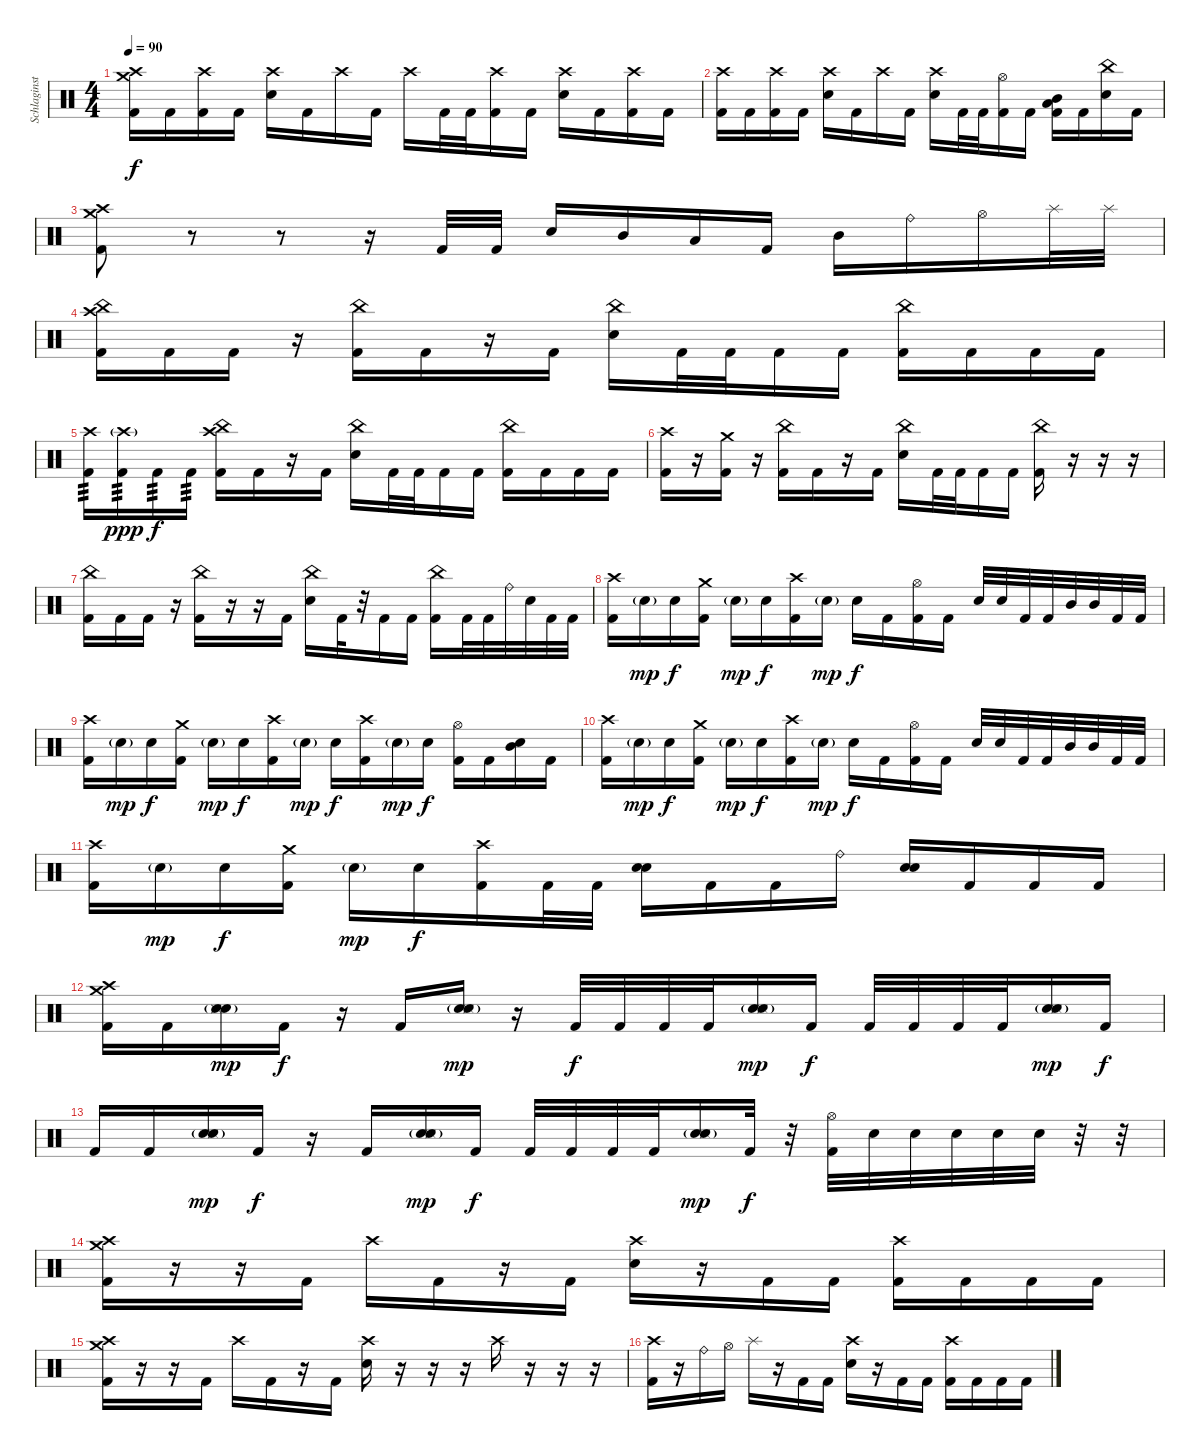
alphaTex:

\track ("Schlaginstrumente - Auswahl" "Schlaginst") {instrument percussion}
\staff {score}
\articulation defaults
\ts (4 4)
\tempo 90
\clef neutral
\ks c
("Crash high (hit)" "Crash medium (hit)" "Kick (hit) 2").16{dy f} "Kick (hit) 2".16 ("Crash high (hit)" "Kick (hit) 2").16 "Kick (hit) 2".16 ("Crash high (hit)" "Electric Snare (hit)").16 "Kick (hit) 2".16 "Crash high (hit)".16 "Kick (hit) 2".16 "Crash high (hit)".16 "Kick (hit) 2".32 "Kick (hit) 2".32 ("Crash high (hit)" "Kick (hit) 2").16 "Kick (hit) 2".16 ("Crash high (hit)" "Electric Snare (hit)").16 "Kick (hit) 2".16 ("Crash high (hit)" "Kick (hit) 2").16 "Kick (hit) 2".16 |
("Crash high (hit)" "Kick (hit) 2").16 "Kick (hit) 2".16 ("Crash high (hit)" "Kick (hit) 2").16 "Kick (hit) 2".16 ("Crash high (hit)" "Electric Snare (hit)").16 "Kick (hit) 2".16 "Crash high (hit)".16 "Kick (hit) 2".16 ("Crash high (hit)" "Electric Snare (hit)").16 "Kick (hit) 2".32 "Kick (hit) 2".32 ("Hi-Hat (open)" "Kick (hit) 2").16 "Kick (hit) 2".16 ("Mid Tom (hit)" "Low Tom (hit)" "Kick (hit) 2").16 "Kick (hit) 2".16 ("China (hit)" "Electric Snare (hit)").16 "Kick (hit) 2".16 |
("Crash high (hit)" "Crash medium (hit)" "Kick (hit) 2").8 r.8 r.8 r.16 "Kick (hit) 2".32 "Kick (hit) 2".32 "Electric Snare (hit)".16 "Mid Tom (hit)".16 "Low Tom (hit)".16 "Kick (hit) 2".16 "Mid Tom (hit)".16 "Ride (bell)".16 "Hi-Hat (open)".16 "Splash (hit)".32 "Splash (hit)".32 |
("Crash high (hit)" "China (hit)" "Kick (hit) 2").16 "Kick (hit) 2".16 "Kick (hit) 2".16 r.16 ("China (hit)" "Kick (hit) 2").16 "Kick (hit) 2".16 r.16 "Kick (hit) 2".16 ("China (hit)" "Electric Snare (hit)").16 "Kick (hit) 2".32 "Kick (hit) 2".32 "Kick (hit) 2".16 "Kick (hit) 2".16 ("China (hit)" "Kick (hit) 2").16 "Kick (hit) 2".16 "Kick (hit) 2".16 "Kick (hit) 2".16 |
("Crash high (hit)" "Kick (hit) 2").16{tp 3} ("Crash high (hit)"{g} "Kick (hit) 2").16{tp 3 dy ppp} "Kick (hit) 2".16{tp 3 dy f} "Kick (hit) 2".16{tp 3} ("Crash high (hit)" "China (hit)" "Kick (hit) 2").16 "Kick (hit) 2".16 r.16 "Kick (hit) 2".16 ("China (hit)" "Electric Snare (hit)").16 "Kick (hit) 2".32 "Kick (hit) 2".32 "Kick (hit) 2".16 "Kick (hit) 2".16 ("China (hit)" "Kick (hit) 2").16 "Kick (hit) 2".16 "Kick (hit) 2".16 "Kick (hit) 2".16 |
("Crash high (hit)" "Kick (hit) 2").16 r.16 ("Crash medium (hit)" "Kick (hit) 2").16 r.16 ("China (hit)" "Kick (hit) 2").16 "Kick (hit) 2".16 r.16 "Kick (hit) 2".16 ("China (hit)" "Electric Snare (hit)").16 "Kick (hit) 2".32 "Kick (hit) 2".32 "Kick (hit) 2".16 "Kick (hit) 2".16 ("China (hit)" "Kick (hit) 2").16 r.16 r.16 r.16 |
("China (hit)" "Kick (hit) 2").16 "Kick (hit) 2".16 "Kick (hit) 2".16 r.16 ("China (hit)" "Kick (hit) 2").16 r.16 r.16 "Kick (hit) 2".16 ("China (hit)" "Electric Snare (hit)").16 "Kick (hit) 2".32 r.32 "Kick (hit) 2".16 "Kick (hit) 2".16 ("China (hit)" "Kick (hit) 2").16 "Kick (hit) 2".32 "Kick (hit) 2".32 "Ride (bell)".32 "Electric Snare (hit)".32 "Kick (hit) 2".32 "Kick (hit) 2".32 |
("Crash high (hit)" "Kick (hit) 2").16 "Electric Snare (hit)"{g}.16{dy mp} "Electric Snare (hit)".16{dy f} ("Crash medium (hit)" "Kick (hit) 2").16 "Electric Snare (hit)"{g}.16{dy mp} "Electric Snare (hit)".16{dy f} ("Crash high (hit)" "Kick (hit) 2").16 "Electric Snare (hit)"{g}.16{dy mp} "Electric Snare (hit)".16{dy f} "Kick (hit) 2".16 ("Hi-Hat (open)" "Kick (hit) 2").16 "Kick (hit) 2".16 "Electric Snare (hit)".32 "Electric Snare (hit)".32 "Kick (hit) 2".32 "Kick (hit) 2".32 "Mid Tom (hit)".32 "Mid Tom (hit)".32 "Kick (hit) 2".32 "Kick (hit) 2".32 |
("Crash high (hit)" "Kick (hit) 2").16 "Electric Snare (hit)"{g}.16{dy mp} "Electric Snare (hit)".16{dy f} ("Crash medium (hit)" "Kick (hit) 2").16 "Electric Snare (hit)"{g}.16{dy mp} "Electric Snare (hit)".16{dy f} ("Crash high (hit)" "Kick (hit) 2").16 "Electric Snare (hit)"{g}.16{dy mp} "Electric Snare (hit)".16{dy f} ("Crash high (hit)" "Kick (hit) 2").16 "Electric Snare (hit)"{g}.16{dy mp} "Electric Snare (hit)".16{dy f} ("Hi-Hat (open)" "Kick (hit) 2").16 "Kick (hit) 2".16 ("Mid Tom (hit)" "Electric Snare (hit)").16 "Kick (hit) 2".16 |
("Crash high (hit)" "Kick (hit) 2").16 "Electric Snare (hit)"{g}.16{dy mp} "Electric Snare (hit)".16{dy f} ("Crash medium (hit)" "Kick (hit) 2").16 "Electric Snare (hit)"{g}.16{dy mp} "Electric Snare (hit)".16{dy f} ("Crash high (hit)" "Kick (hit) 2").16 "Electric Snare (hit)"{g}.16{dy mp} "Electric Snare (hit)".16{dy f} "Kick (hit) 2".16 ("Hi-Hat (open)" "Kick (hit) 2").16 "Kick (hit) 2".16 "Electric Snare (hit)".32 "Electric Snare (hit)".32 "Kick (hit) 2".32 "Kick (hit) 2".32 "Mid Tom (hit)".32 "Mid Tom (hit)".32 "Kick (hit) 2".32 "Kick (hit) 2".32 |
("Crash high (hit)" "Kick (hit) 2").16 "Electric Snare (hit)"{g}.16{dy mp} "Electric Snare (hit)".16{dy f} ("Crash medium (hit)" "Kick (hit) 2").16 "Electric Snare (hit)"{g}.16{dy mp} "Electric Snare (hit)".16{dy f} ("Crash high (hit)" "Kick (hit) 2").16 "Kick (hit) 2".32 "Kick (hit) 2".32 ("Electric Snare (hit)" "Electric Snare (hit)").16{bd 480} "Kick (hit) 2".16 "Kick (hit) 2".16 "Ride (bell)".16 ("Electric Snare (hit)" "Electric Snare (hit)").16{bd 480} "Kick (hit) 2".16 "Kick (hit) 2".16 "Kick (hit) 2".16 |
("Crash high (hit)" "Crash medium (hit)" "Kick (hit) 2").16 "Kick (hit) 2".16 ("Hand Clap (hit)" "Snare (side stick) 3"{g} "Electric Snare (hit)").16{dy mp} "Kick (hit) 2".16{dy f} r.16 "Kick (hit) 2".16 ("Hand Clap (hit)" "Snare (side stick) 3"{g} "Electric Snare (hit)").16{dy mp} r.16 "Kick (hit) 2".32{dy f} "Kick (hit) 2".32 "Kick (hit) 2".32 "Kick (hit) 2".32 ("Hand Clap (hit)" "Snare (side stick) 3"{g} "Electric Snare (hit)").16{dy mp} "Kick (hit) 2".16{dy f} "Kick (hit) 2".32 "Kick (hit) 2".32 "Kick (hit) 2".32 "Kick (hit) 2".32 ("Hand Clap (hit)" "Snare (side stick) 3"{g} "Electric Snare (hit)").16{dy mp} "Kick (hit) 2".16{dy f} |
"Kick (hit) 2".16 "Kick (hit) 2".16 ("Hand Clap (hit)" "Snare (side stick) 3"{g} "Electric Snare (hit)").16{dy mp} "Kick (hit) 2".16{dy f} r.16 "Kick (hit) 2".16 ("Hand Clap (hit)" "Snare (side stick) 3"{g} "Electric Snare (hit)").16{dy mp} "Kick (hit) 2".16{dy f} "Kick (hit) 2".32 "Kick (hit) 2".32 "Kick (hit) 2".32 "Kick (hit) 2".32 ("Hand Clap (hit)" "Snare (side stick) 3"{g} "Electric Snare (hit)").16{dy mp} "Kick (hit) 2".32{dy f} r.32 ("Hi-Hat (open)" "Kick (hit) 2").32 "Electric Snare (hit)".32 "Electric Snare (hit)".32 "Electric Snare (hit)".32 "Electric Snare (hit)".32 "Electric Snare (hit)".32 r.32 r.32 |
("Crash high (hit)" "Crash medium (hit)" "Kick (hit) 2").16 r.16 r.16 "Kick (hit) 2".16 "Crash high (hit)".16 "Kick (hit) 2".16 r.16 "Kick (hit) 2".16 ("Crash high (hit)" "Electric Snare (hit)").16 r.16 "Kick (hit) 2".16 "Kick (hit) 2".16 ("Crash high (hit)" "Kick (hit) 2").16 "Kick (hit) 2".16 "Kick (hit) 2".16 "Kick (hit) 2".16 |
("Crash high (hit)" "Crash medium (hit)" "Kick (hit) 2").16 r.16 r.16 "Kick (hit) 2".16 "Crash high (hit)".16 "Kick (hit) 2".16 r.16 "Kick (hit) 2".16 ("Crash high (hit)" "Electric Snare (hit)").16 r.16 r.16 r.16 "Crash high (hit)".16 r.16 r.16 r.16 |
("Crash high (hit)" "Kick (hit) 2").16 r.16 "Ride (bell)".16 "Hi-Hat (open)".16 "Splash (hit)".16 r.16 "Kick (hit) 2".16 "Kick (hit) 2".16 ("Crash high (hit)" "Electric Snare (hit)").16 r.16 "Kick (hit) 2".16 "Kick (hit) 2".16 ("Crash high (hit)" "Kick (hit) 2").16 "Kick (hit) 2".16 "Kick (hit) 2".16 "Kick (hit) 2".16
